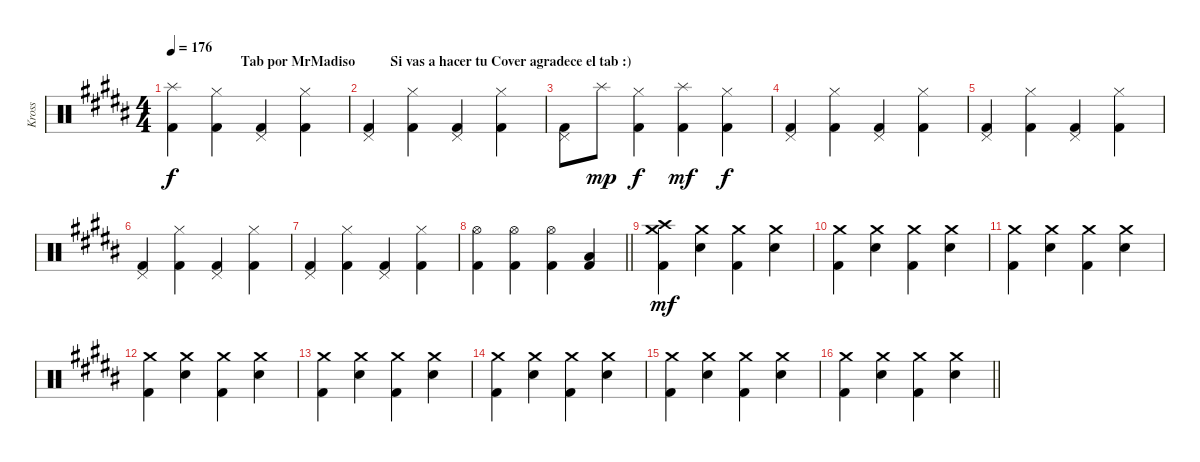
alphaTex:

\track ("Kross" "Kross") {instrument percussion}
\staff {score}
\articulation defaults
\ts (4 4)
\section ("" "                     Tab por MrMadiso          Si vas a hacer tu Cover agradece el tab :)")
\tempo 176
\clef neutral
\ks b
("Splash (hit)" "Kick (hit) 2").4{dy f} ("Hi-Hat (closed)" "Kick (hit) 2").4 ("Pedal Hi-Hat (hit)" "Kick (hit) 2").4 ("Hi-Hat (closed)" "Kick (hit) 2").4 |
("Pedal Hi-Hat (hit)" "Kick (hit) 2").4 ("Hi-Hat (closed)" "Kick (hit) 2").4 ("Pedal Hi-Hat (hit)" "Kick (hit) 2").4 ("Hi-Hat (closed)" "Kick (hit) 2").4 |
("Pedal Hi-Hat (hit)" "Kick (hit) 2").8 "Splash (hit)".8{dy mp} ("Hi-Hat (closed)" "Kick (hit) 2").4{dy f} ("Splash (hit)" "Kick (hit) 2").4{dy mf} ("Hi-Hat (closed)" "Kick (hit) 2").4{dy f} |
("Pedal Hi-Hat (hit)" "Kick (hit) 2").4 ("Hi-Hat (closed)" "Kick (hit) 2").4 ("Pedal Hi-Hat (hit)" "Kick (hit) 2").4 ("Hi-Hat (closed)" "Kick (hit) 2").4 |
("Pedal Hi-Hat (hit)" "Kick (hit) 2").4 ("Hi-Hat (closed)" "Kick (hit) 2").4 ("Pedal Hi-Hat (hit)" "Kick (hit) 2").4 ("Hi-Hat (closed)" "Kick (hit) 2").4 |
("Pedal Hi-Hat (hit)" "Kick (hit) 2").4 ("Hi-Hat (closed)" "Kick (hit) 2").4 ("Pedal Hi-Hat (hit)" "Kick (hit) 2").4 ("Hi-Hat (closed)" "Kick (hit) 2").4 |
("Pedal Hi-Hat (hit)" "Kick (hit) 2").4 ("Hi-Hat (closed)" "Kick (hit) 2").4 ("Pedal Hi-Hat (hit)" "Kick (hit) 2").4 ("Hi-Hat (closed)" "Kick (hit) 2").4 |
\barLineRight lightlight
("Hi-Hat (open)" "Kick (hit) 2").4 ("Hi-Hat (open)" "Kick (hit) 2").4 ("Hi-Hat (open)" "Kick (hit) 2").4 ("Low Floor Tom (hit)" "Kick (hit) 2").4 |
("Crash high (hit)" "Crash medium (hit)" "Kick (hit) 2").4{dy mf} ("Crash medium (hit)" "Snare (hit) 2").4 ("Crash medium (hit)" "Kick (hit) 2").4 ("Crash medium (hit)" "Snare (hit) 2").4 |
("Crash medium (hit)" "Kick (hit) 2").4 ("Crash medium (hit)" "Snare (hit) 2").4 ("Crash medium (hit)" "Kick (hit) 2").4 ("Crash medium (hit)" "Snare (hit) 2").4 |
("Crash medium (hit)" "Kick (hit) 2").4 ("Crash medium (hit)" "Snare (hit) 2").4 ("Crash medium (hit)" "Kick (hit) 2").4 ("Crash medium (hit)" "Snare (hit) 2").4 |
("Crash medium (hit)" "Kick (hit) 2").4 ("Crash medium (hit)" "Snare (hit) 2").4 ("Crash medium (hit)" "Kick (hit) 2").4 ("Crash medium (hit)" "Snare (hit) 2").4 |
("Crash medium (hit)" "Kick (hit) 2").4 ("Crash medium (hit)" "Snare (hit) 2").4 ("Crash medium (hit)" "Kick (hit) 2").4 ("Crash medium (hit)" "Snare (hit) 2").4 |
("Crash medium (hit)" "Kick (hit) 2").4 ("Crash medium (hit)" "Snare (hit) 2").4 ("Crash medium (hit)" "Kick (hit) 2").4 ("Crash medium (hit)" "Snare (hit) 2").4 |
("Crash medium (hit)" "Kick (hit) 2").4 ("Crash medium (hit)" "Snare (hit) 2").4 ("Crash medium (hit)" "Kick (hit) 2").4 ("Crash medium (hit)" "Snare (hit) 2").4 |
\barLineRight lightlight
("Crash medium (hit)" "Kick (hit) 2").4 ("Crash medium (hit)" "Snare (hit) 2").4 ("Crash medium (hit)" "Kick (hit) 2").4 ("Crash medium (hit)" "Snare (hit) 2").4
